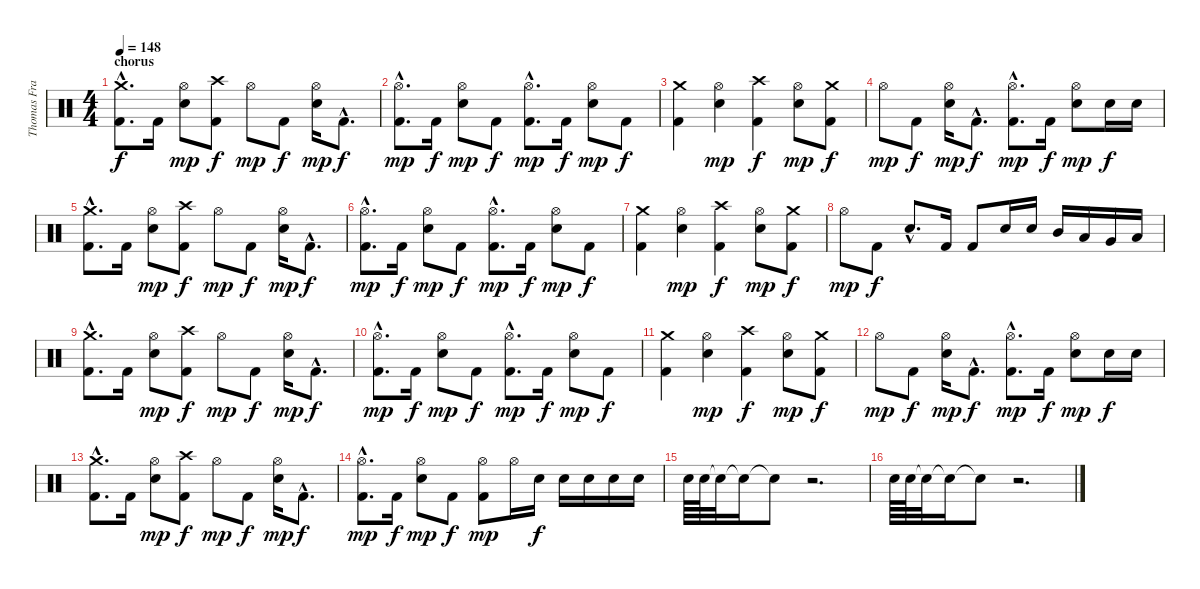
\track ("Thomas Franke" "Thomas Fra") {instrument percussion}
\staff {score}
\articulation defaults
\ts (4 4)
\section ("" "chorus")
\tempo 148
\clef neutral
\ks c
("Kick (hit) 2"{hac} "Crash medium (hit)"{hac}).8{d dy f} "Kick (hit) 2".16 ("Hi-Hat (open)" "Snare (hit) 2").8{dy mp} ("Kick (hit) 2" "Crash high (hit)").8{dy f} "Hi-Hat (open)".8{dy mp} "Kick (hit) 2".8{dy f} ("Hi-Hat (open)" "Snare (hit) 2").16{dy mp} "Kick (hit) 2"{hac}.8{d dy f} |
("Kick (hit) 2"{hac} "Hi-Hat (open)"{hac}).8{d dy mp} "Kick (hit) 2".16{dy f} ("Hi-Hat (open)" "Snare (hit) 2").8{dy mp} "Kick (hit) 2".8{dy f} ("Kick (hit) 2"{hac} "Hi-Hat (open)"{hac}).8{d dy mp} "Kick (hit) 2".16{dy f} ("Hi-Hat (open)" "Snare (hit) 2").8{dy mp} "Kick (hit) 2".8{dy f} |
("Kick (hit) 2" "Crash medium (hit)").4 ("Hi-Hat (open)" "Snare (hit) 2").4{dy mp} ("Kick (hit) 2" "Crash high (hit)").4{dy f} ("Hi-Hat (open)" "Snare (hit) 2").8{dy mp} ("Kick (hit) 2" "Crash medium (hit)").8{dy f} |
"Hi-Hat (open)".8{dy mp} "Kick (hit) 2".8{dy f} ("Hi-Hat (open)" "Snare (hit) 2").16{dy mp} "Kick (hit) 2"{hac}.8{d dy f} ("Kick (hit) 2"{hac} "Hi-Hat (open)"{hac}).8{d dy mp} "Kick (hit) 2".16{dy f} ("Hi-Hat (open)" "Snare (hit) 2").8{dy mp} "Snare (hit) 2".16{dy f} "Snare (hit) 2".16 |
("Kick (hit) 2"{hac} "Crash medium (hit)"{hac}).8{d} "Kick (hit) 2".16 ("Hi-Hat (open)" "Snare (hit) 2").8{dy mp} ("Kick (hit) 2" "Crash high (hit)").8{dy f} "Hi-Hat (open)".8{dy mp} "Kick (hit) 2".8{dy f} ("Hi-Hat (open)" "Snare (hit) 2").16{dy mp} "Kick (hit) 2"{hac}.8{d dy f} |
("Kick (hit) 2"{hac} "Hi-Hat (open)"{hac}).8{d dy mp} "Kick (hit) 2".16{dy f} ("Hi-Hat (open)" "Snare (hit) 2").8{dy mp} "Kick (hit) 2".8{dy f} ("Kick (hit) 2"{hac} "Hi-Hat (open)"{hac}).8{d dy mp} "Kick (hit) 2".16{dy f} ("Hi-Hat (open)" "Snare (hit) 2").8{dy mp} "Kick (hit) 2".8{dy f} |
("Kick (hit) 2" "Crash medium (hit)").4 ("Hi-Hat (open)" "Snare (hit) 2").4{dy mp} ("Kick (hit) 2" "Crash high (hit)").4{dy f} ("Hi-Hat (open)" "Snare (hit) 2").8{dy mp} ("Kick (hit) 2" "Crash medium (hit)").8{dy f} |
"Hi-Hat (open)".8{dy mp} "Kick (hit) 2".8{dy f} "Snare (hit) 2"{hac}.8{d} "Kick (hit) 2".16 "Kick (hit) 2".8 "Snare (hit) 2".16 "Snare (hit) 2".16 "Mid Tom (hit)".16 "Low Tom (hit)".16 "Very Low Tom (hit)".16 "Low Floor Tom (hit)".16 |
("Kick (hit) 2"{hac} "Crash medium (hit)"{hac}).8{d} "Kick (hit) 2".16 ("Hi-Hat (open)" "Snare (hit) 2").8{dy mp} ("Kick (hit) 2" "Crash high (hit)").8{dy f} "Hi-Hat (open)".8{dy mp} "Kick (hit) 2".8{dy f} ("Hi-Hat (open)" "Snare (hit) 2").16{dy mp} "Kick (hit) 2"{hac}.8{d dy f} |
("Kick (hit) 2"{hac} "Hi-Hat (open)"{hac}).8{d dy mp} "Kick (hit) 2".16{dy f} ("Hi-Hat (open)" "Snare (hit) 2").8{dy mp} "Kick (hit) 2".8{dy f} ("Kick (hit) 2"{hac} "Hi-Hat (open)"{hac}).8{d dy mp} "Kick (hit) 2".16{dy f} ("Hi-Hat (open)" "Snare (hit) 2").8{dy mp} "Kick (hit) 2".8{dy f} |
("Kick (hit) 2" "Crash medium (hit)").4 ("Hi-Hat (open)" "Snare (hit) 2").4{dy mp} ("Kick (hit) 2" "Crash high (hit)").4{dy f} ("Hi-Hat (open)" "Snare (hit) 2").8{dy mp} ("Kick (hit) 2" "Crash medium (hit)").8{dy f} |
"Hi-Hat (open)".8{dy mp} "Kick (hit) 2".8{dy f} ("Hi-Hat (open)" "Snare (hit) 2").16{dy mp} "Kick (hit) 2"{hac}.8{d dy f} ("Kick (hit) 2"{hac} "Hi-Hat (open)"{hac}).8{d dy mp} "Kick (hit) 2".16{dy f} ("Hi-Hat (open)" "Snare (hit) 2").8{dy mp} "Snare (hit) 2".16{dy f} "Snare (hit) 2".16 |
("Kick (hit) 2"{hac} "Crash medium (hit)"{hac}).8{d} "Kick (hit) 2".16 ("Hi-Hat (open)" "Snare (hit) 2").8{dy mp} ("Kick (hit) 2" "Crash high (hit)").8{dy f} "Hi-Hat (open)".8{dy mp} "Kick (hit) 2".8{dy f} ("Hi-Hat (open)" "Snare (hit) 2").16{dy mp} "Kick (hit) 2"{hac}.8{d dy f} |
("Kick (hit) 2"{hac} "Hi-Hat (open)"{hac}).8{d dy mp} "Kick (hit) 2".16{dy f} ("Hi-Hat (open)" "Snare (hit) 2").8{dy mp} "Kick (hit) 2".8{dy f} ("Kick (hit) 2" "Hi-Hat (open)").8{dy mp} "Hi-Hat (open)".16 "Snare (hit) 2".16{dy f} "Snare (hit) 2".16 "Snare (hit) 2".16 "Snare (hit) 2".16 "Snare (hit) 2".16 |
"Snare (hit) 2".64 "Snare (hit) 2".64 "Snare (hit)"{t}.32 "Snare (hit)"{t}.16 "Snare (hit)"{t}.8 r.2{d} |
"Snare (hit) 2".64 "Snare (hit) 2".64 "Snare (hit)"{t}.32 "Snare (hit)"{t}.16 "Snare (hit)"{t}.8 r.2{d}
